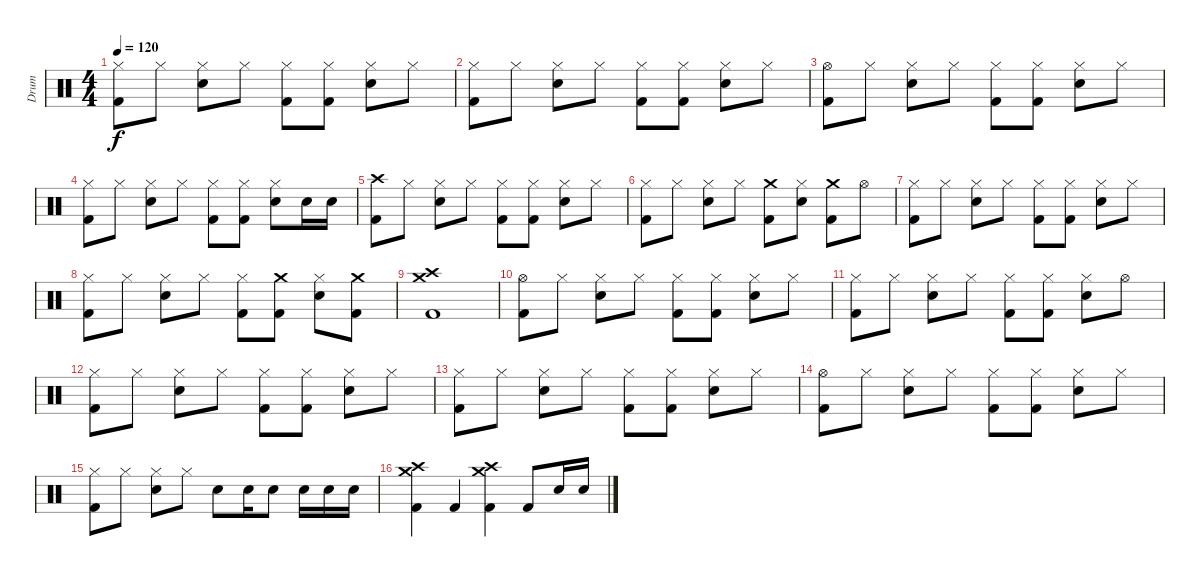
\track ("Drum" "Drum") {instrument percussion}
\staff {score}
\articulation defaults
\ts (4 4)
\tempo 120
\clef neutral
\ks c
("Hi-Hat (closed)" "Kick (hit) 2").8{dy f} "Hi-Hat (closed)".8 ("Hi-Hat (closed)" "Electric Snare (hit)").8 "Hi-Hat (closed)".8 ("Hi-Hat (closed)" "Kick (hit) 2").8 ("Hi-Hat (closed)" "Kick (hit) 2").8 ("Hi-Hat (closed)" "Electric Snare (hit)").8 "Hi-Hat (closed)".8 |
("Hi-Hat (closed)" "Kick (hit) 2").8 "Hi-Hat (closed)".8 ("Hi-Hat (closed)" "Electric Snare (hit)").8 "Hi-Hat (closed)".8 ("Hi-Hat (closed)" "Kick (hit) 2").8 ("Hi-Hat (closed)" "Kick (hit) 2").8 ("Hi-Hat (closed)" "Electric Snare (hit)").8 "Hi-Hat (closed)".8 |
("Hi-Hat (open)" "Kick (hit) 2").8 "Hi-Hat (closed)".8 ("Hi-Hat (closed)" "Electric Snare (hit)").8 "Hi-Hat (closed)".8 ("Hi-Hat (closed)" "Kick (hit) 2").8 ("Hi-Hat (closed)" "Kick (hit) 2").8 ("Hi-Hat (closed)" "Electric Snare (hit)").8 "Hi-Hat (closed)".8 |
("Hi-Hat (closed)" "Kick (hit) 2").8 "Hi-Hat (closed)".8 ("Hi-Hat (closed)" "Electric Snare (hit)").8 "Hi-Hat (closed)".8 ("Hi-Hat (closed)" "Kick (hit) 2").8 ("Hi-Hat (closed)" "Kick (hit) 2").8 ("Hi-Hat (closed)" "Electric Snare (hit)").8 "Electric Snare (hit)".16 "Electric Snare (hit)".16 |
("Crash high (hit)" "Kick (hit) 2").8 "Hi-Hat (closed)".8 ("Hi-Hat (closed)" "Electric Snare (hit)").8 "Hi-Hat (closed)".8 ("Hi-Hat (closed)" "Kick (hit) 2").8 ("Hi-Hat (closed)" "Kick (hit) 2").8 ("Hi-Hat (closed)" "Electric Snare (hit)").8 "Hi-Hat (closed)".8 |
("Hi-Hat (closed)" "Kick (hit) 2").8 "Hi-Hat (closed)".8 ("Hi-Hat (closed)" "Electric Snare (hit)").8 "Hi-Hat (closed)".8 ("Crash medium (hit)" "Kick (hit) 2").8 ("Hi-Hat (closed)" "Electric Snare (hit)").8 ("Crash medium (hit)" "Kick (hit) 2").8 "Hi-Hat (open)".8 |
("Hi-Hat (closed)" "Kick (hit) 2").8 "Hi-Hat (closed)".8 ("Hi-Hat (closed)" "Electric Snare (hit)").8 "Hi-Hat (closed)".8 ("Hi-Hat (closed)" "Kick (hit) 2").8 ("Hi-Hat (closed)" "Kick (hit) 2").8 ("Hi-Hat (closed)" "Electric Snare (hit)").8 "Hi-Hat (closed)".8 |
("Hi-Hat (closed)" "Kick (hit) 2").8 "Hi-Hat (closed)".8 ("Hi-Hat (closed)" "Electric Snare (hit)").8 "Hi-Hat (closed)".8 ("Hi-Hat (closed)" "Kick (hit) 2").8 ("Crash medium (hit)" "Kick (hit) 2").8 ("Hi-Hat (closed)" "Electric Snare (hit)").8 ("Crash medium (hit)" "Kick (hit) 2").8 |
("Crash medium (hit)" "Crash high (hit)" "Kick (hit) 2").1 |
("Hi-Hat (open)" "Kick (hit) 2").8 "Hi-Hat (closed)".8 ("Hi-Hat (closed)" "Electric Snare (hit)").8 "Hi-Hat (closed)".8 ("Hi-Hat (closed)" "Kick (hit) 2").8 ("Hi-Hat (closed)" "Kick (hit) 2").8 ("Hi-Hat (closed)" "Electric Snare (hit)").8 "Hi-Hat (closed)".8 |
("Hi-Hat (closed)" "Kick (hit) 2").8 "Hi-Hat (closed)".8 ("Hi-Hat (closed)" "Electric Snare (hit)").8 "Hi-Hat (closed)".8 ("Hi-Hat (closed)" "Kick (hit) 2").8 ("Hi-Hat (closed)" "Kick (hit) 2").8 ("Hi-Hat (closed)" "Electric Snare (hit)").8 "Hi-Hat (open)".8 |
("Hi-Hat (closed)" "Kick (hit) 2").8 "Hi-Hat (closed)".8 ("Hi-Hat (closed)" "Electric Snare (hit)").8 "Hi-Hat (closed)".8 ("Hi-Hat (closed)" "Kick (hit) 2").8 ("Hi-Hat (closed)" "Kick (hit) 2").8 ("Hi-Hat (closed)" "Electric Snare (hit)").8 "Hi-Hat (closed)".8 |
("Hi-Hat (closed)" "Kick (hit) 2").8 "Hi-Hat (closed)".8 ("Hi-Hat (closed)" "Electric Snare (hit)").8 "Hi-Hat (closed)".8 ("Hi-Hat (closed)" "Kick (hit) 2").8 ("Hi-Hat (closed)" "Kick (hit) 2").8 ("Hi-Hat (closed)" "Electric Snare (hit)").8 "Hi-Hat (closed)".8 |
("Hi-Hat (open)" "Kick (hit) 2").8 "Hi-Hat (closed)".8 ("Hi-Hat (closed)" "Electric Snare (hit)").8 "Hi-Hat (closed)".8 ("Hi-Hat (closed)" "Kick (hit) 2").8 ("Hi-Hat (closed)" "Kick (hit) 2").8 ("Hi-Hat (closed)" "Electric Snare (hit)").8 "Hi-Hat (closed)".8 |
("Hi-Hat (closed)" "Kick (hit) 2").8 "Hi-Hat (closed)".8 ("Hi-Hat (closed)" "Electric Snare (hit)").8 "Hi-Hat (closed)".8 "Electric Snare (hit)".8 "Electric Snare (hit)".16 "Electric Snare (hit)".8 "Electric Snare (hit)".16 "Electric Snare (hit)".16 "Electric Snare (hit)".16 |
("Crash medium (hit)" "Crash high (hit)" "Kick (hit) 2").4 "Kick (hit) 2".4 ("Crash medium (hit)" "Crash high (hit)" "Kick (hit) 2").4 "Kick (hit) 2".8 "Electric Snare (hit)".16 "Electric Snare (hit)".16
